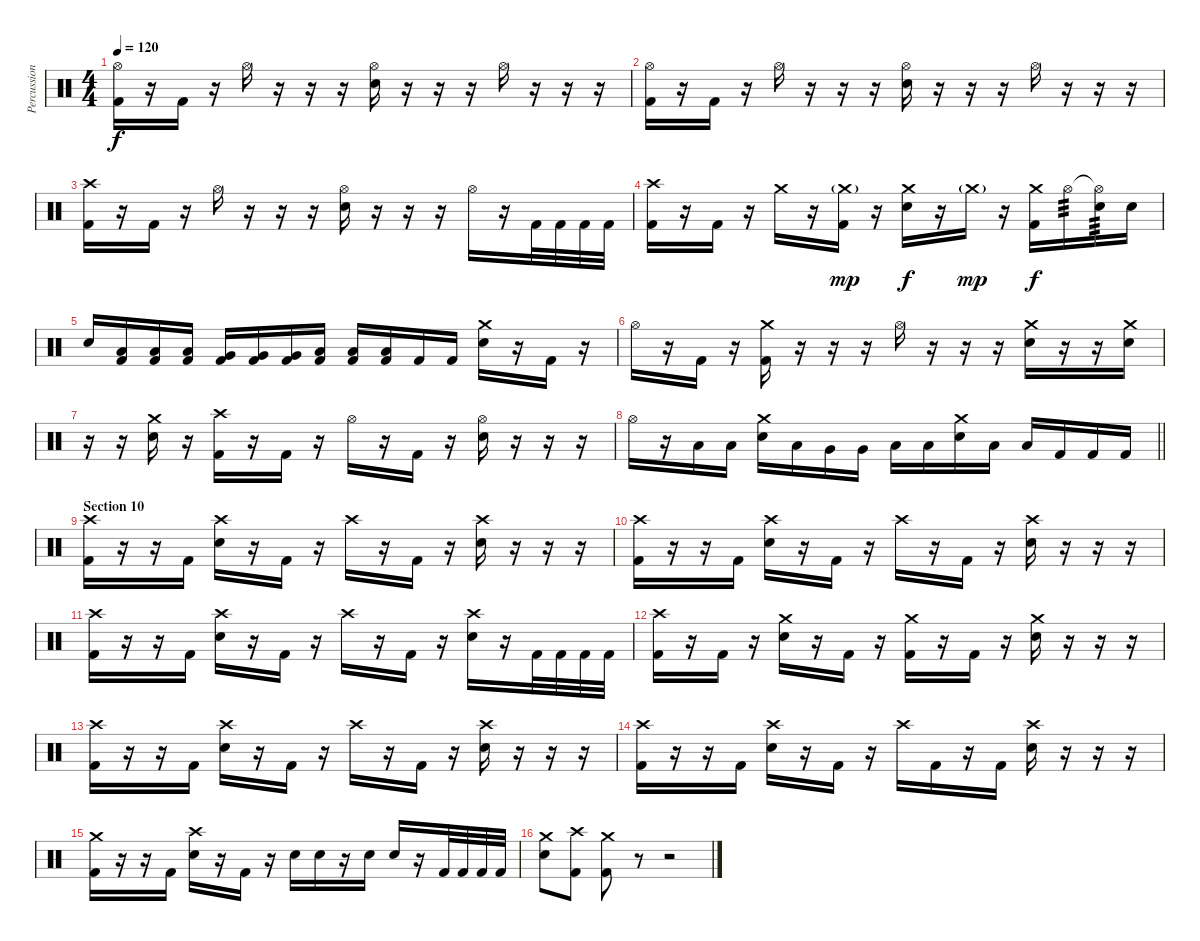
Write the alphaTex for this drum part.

\track ("Percussion" "Percussion") {instrument percussion}
\staff {score}
\articulation defaults
\ts (4 4)
\tempo 120
\clef neutral
\ks c
("Hi-Hat (open)" "Kick (hit) 2").16{dy f} r.16 "Kick (hit) 2".16 r.16 "Hi-Hat (open)".16 r.16 r.16 r.16 ("Hi-Hat (open)" "Electric Snare (hit)").16 r.16 r.16 r.16 "Hi-Hat (open)".16 r.16 r.16 r.16 |
("Hi-Hat (open)" "Kick (hit) 2").16 r.16 "Kick (hit) 2".16 r.16 "Hi-Hat (open)".16 r.16 r.16 r.16 ("Hi-Hat (open)" "Electric Snare (hit)").16 r.16 r.16 r.16 "Hi-Hat (open)".16 r.16 r.16 r.16 |
("Crash high (hit)" "Kick (hit) 2").16 r.16 "Kick (hit) 2".16 r.16 "Hi-Hat (open)".16 r.16 r.16 r.16 ("Hi-Hat (open)" "Electric Snare (hit)").16 r.16 r.16 r.16 "Hi-Hat (open)".16 r.16 "Kick (hit) 2".32 "Kick (hit) 2".32 "Kick (hit) 2".32 "Kick (hit) 2".32 |
("Crash high (hit)" "Kick (hit) 2").16 r.16 "Kick (hit) 2".16 r.16 "Crash medium (hit)".16 r.16 ("Crash medium (hit)"{g} "Kick (hit) 2").16{dy mp} r.16 ("Crash medium (hit)" "Electric Snare (hit)").16{dy f} r.16 "Crash medium (hit)"{g}.16{dy mp} r.16 ("Crash medium (hit)" "Kick (hit) 2").16{dy f} "Hi-Hat (open)".16{tp 3} ("Hi-Hat (open)"{t} "Electric Snare (hit)").16{tp 3} "Electric Snare (hit)".16 |
"Electric Snare (hit)".16 ("Low Tom (hit)" "Kick (hit) 2").16 ("Low Tom (hit)" "Kick (hit) 2").16 ("Low Tom (hit)" "Kick (hit) 2").16 ("Very Low Tom (hit)" "Kick (hit) 2").16 ("Very Low Tom (hit)" "Kick (hit) 2").16 ("Very Low Tom (hit)" "Kick (hit) 2").16 ("Low Floor Tom (hit)" "Kick (hit) 2").16 ("Low Floor Tom (hit)" "Kick (hit) 2").16 ("Low Floor Tom (hit)" "Kick (hit) 2").16 "Kick (hit) 2".16 "Kick (hit) 2".16 ("Crash medium (hit)" "Electric Snare (hit)").16 r.16 "Kick (hit) 2".16 r.16 |
"Hi-Hat (open)".16 r.16 "Kick (hit) 2".16 r.16 ("Crash medium (hit)" "Kick (hit) 2").16 r.16 r.16 r.16 "Hi-Hat (open)".16 r.16 r.16 r.16 ("Crash medium (hit)" "Electric Snare (hit)").16 r.16 r.16 ("Crash medium (hit)" "Electric Snare (hit)").16 |
r.16 r.16 ("Crash medium (hit)" "Electric Snare (hit)").16 r.16 ("Crash high (hit)" "Kick (hit) 2").16 r.16 "Kick (hit) 2".16 r.16 "Hi-Hat (open)".16 r.16 "Kick (hit) 2".16 r.16 ("Hi-Hat (open)" "Electric Snare (hit)").16 r.16 r.16 r.16 |
\barLineRight lightlight "Hi-Hat (open)".16
r.16 "Low Tom (hit)".16 "Low Tom (hit)".16 ("Crash medium (hit)" "Electric Snare (hit)").16 "Low Tom (hit)".16 "Very Low Tom (hit)".16 "Very Low Tom (hit)".16 "Low Floor Tom (hit)".16 "Low Floor Tom (hit)".16 ("Crash medium (hit)" "Electric Snare (hit)").16 "Low Floor Tom (hit)".16 "Low Floor Tom (hit)".16 "Kick (hit) 2".16 "Kick (hit) 2".16 "Kick (hit) 2".16 |
\section ("" "Section 10")
("Crash high (hit)" "Kick (hit) 2").16 r.16 r.16 "Kick (hit) 2".16 ("Crash high (hit)" "Electric Snare (hit)").16 r.16 "Kick (hit) 2".16 r.16 "Crash high (hit)".16 r.16 "Kick (hit) 2".16 r.16 ("Crash high (hit)" "Electric Snare (hit)").16 r.16 r.16 r.16 |
("Crash high (hit)" "Kick (hit) 2").16 r.16 r.16 "Kick (hit) 2".16 ("Crash high (hit)" "Electric Snare (hit)").16 r.16 "Kick (hit) 2".16 r.16 "Crash high (hit)".16 r.16 "Kick (hit) 2".16 r.16 ("Crash high (hit)" "Electric Snare (hit)").16 r.16 r.16 r.16 |
("Crash high (hit)" "Kick (hit) 2").16 r.16 r.16 "Kick (hit) 2".16 ("Crash high (hit)" "Electric Snare (hit)").16 r.16 "Kick (hit) 2".16 r.16 "Crash high (hit)".16 r.16 "Kick (hit) 2".16 r.16 ("Crash high (hit)" "Electric Snare (hit)").16 r.16 "Kick (hit) 2".32 "Kick (hit) 2".32 "Kick (hit) 2".32 "Kick (hit) 2".32 |
("Crash high (hit)" "Kick (hit) 2").16 r.16 "Kick (hit) 2".16 r.16 ("Crash medium (hit)" "Electric Snare (hit)").16 r.16 "Kick (hit) 2".16 r.16 ("Crash medium (hit)" "Kick (hit) 2").16 r.16 "Kick (hit) 2".16 r.16 ("Crash medium (hit)" "Electric Snare (hit)").16 r.16 r.16 r.16 |
("Crash high (hit)" "Kick (hit) 2").16 r.16 r.16 "Kick (hit) 2".16 ("Crash high (hit)" "Electric Snare (hit)").16 r.16 "Kick (hit) 2".16 r.16 "Crash high (hit)".16 r.16 "Kick (hit) 2".16 r.16 ("Crash high (hit)" "Electric Snare (hit)").16 r.16 r.16 r.16 |
("Crash high (hit)" "Kick (hit) 2").16 r.16 r.16 "Kick (hit) 2".16 ("Crash high (hit)" "Electric Snare (hit)").16 r.16 "Kick (hit) 2".16 r.16 "Crash high (hit)".16 "Kick (hit) 2".16 r.16 "Kick (hit) 2".16 ("Crash high (hit)" "Electric Snare (hit)").16 r.16 r.16 r.16 |
("Crash medium (hit)" "Kick (hit) 2").16 r.16 r.16 "Kick (hit) 2".16 ("Crash high (hit)" "Electric Snare (hit)").16 r.16 "Kick (hit) 2".16 r.16 "Electric Snare (hit)".16 "Electric Snare (hit)".16 r.16 "Electric Snare (hit)".16 "Electric Snare (hit)".16 r.16 "Kick (hit) 2".32 "Kick (hit) 2".32 "Kick (hit) 2".32 "Kick (hit) 2".32 |
("Crash medium (hit)" "Electric Snare (hit)").8 ("Crash high (hit)" "Kick (hit) 2").8 ("Crash medium (hit)" "Kick (hit) 2").8 r.8 r.2
